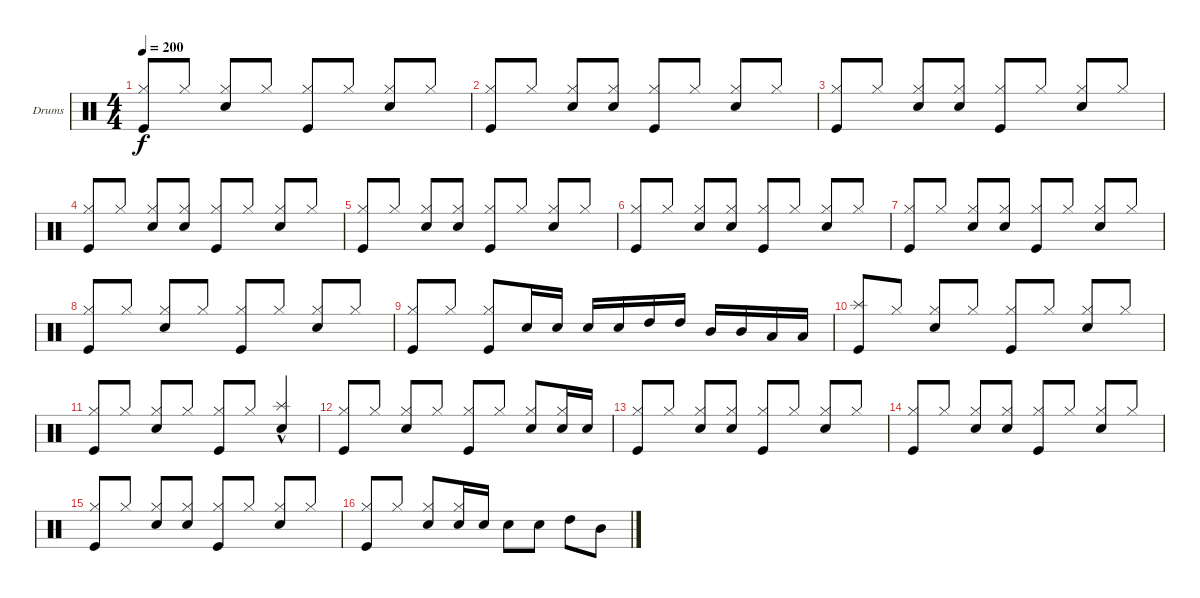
\defaultSystemsLayout 4
\bracketExtendMode groupsimilarinstruments
\firstSystemTrackNameOrientation horizontal
\otherSystemsTrackNameOrientation horizontal
\track ("Drumkit" "Drums") {instrument percussion}
\staff {score}
\articulation defaults
\ts (4 4)
\tempo 200
\clef neutral
\ks c
("Hi-Hat (closed)" "Kick (hit)").8{dy f beam invert} "Hi-Hat (closed)".8 ("Hi-Hat (closed)" "Snare (hit) 2").8{beam invert} "Hi-Hat (closed)".8 ("Hi-Hat (closed)" "Kick (hit)").8{beam invert} "Hi-Hat (closed)".8 ("Hi-Hat (closed)" "Snare (hit) 2").8{beam invert} "Hi-Hat (closed)".8 |
("Hi-Hat (closed)" "Kick (hit)").8{beam invert} "Hi-Hat (closed)".8 ("Hi-Hat (closed)" "Snare (hit) 2").8{beam invert} ("Hi-Hat (closed)" "Snare (hit) 2").8 ("Hi-Hat (closed)" "Kick (hit)").8{beam invert} "Hi-Hat (closed)".8 ("Hi-Hat (closed)" "Snare (hit) 2").8{beam invert} "Hi-Hat (closed)".8 |
("Hi-Hat (closed)" "Kick (hit)").8{beam invert} "Hi-Hat (closed)".8 ("Hi-Hat (closed)" "Snare (hit) 2").8{beam invert} ("Hi-Hat (closed)" "Snare (hit) 2").8 ("Hi-Hat (closed)" "Kick (hit)").8{beam invert} "Hi-Hat (closed)".8 ("Hi-Hat (closed)" "Snare (hit) 2").8{beam invert} "Hi-Hat (closed)".8 |
("Hi-Hat (closed)" "Kick (hit)").8{beam invert} "Hi-Hat (closed)".8 ("Hi-Hat (closed)" "Snare (hit) 2").8{beam invert} ("Hi-Hat (closed)" "Snare (hit) 2").8 ("Hi-Hat (closed)" "Kick (hit)").8{beam invert} "Hi-Hat (closed)".8 ("Hi-Hat (closed)" "Snare (hit) 2").8{beam invert} "Hi-Hat (closed)".8 |
("Hi-Hat (closed)" "Kick (hit)").8{beam invert} "Hi-Hat (closed)".8 ("Hi-Hat (closed)" "Snare (hit) 2").8{beam invert} ("Hi-Hat (closed)" "Snare (hit) 2").8 ("Hi-Hat (closed)" "Kick (hit)").8{beam invert} "Hi-Hat (closed)".8 ("Hi-Hat (closed)" "Snare (hit) 2").8{beam invert} "Hi-Hat (closed)".8 |
("Hi-Hat (closed)" "Kick (hit)").8{beam invert} "Hi-Hat (closed)".8 ("Hi-Hat (closed)" "Snare (hit) 2").8{beam invert} ("Hi-Hat (closed)" "Snare (hit) 2").8 ("Hi-Hat (closed)" "Kick (hit)").8{beam invert} "Hi-Hat (closed)".8 ("Hi-Hat (closed)" "Snare (hit) 2").8{beam invert} "Hi-Hat (closed)".8 |
("Hi-Hat (closed)" "Kick (hit)").8{beam invert} "Hi-Hat (closed)".8 ("Hi-Hat (closed)" "Snare (hit) 2").8{beam invert} ("Hi-Hat (closed)" "Snare (hit) 2").8 ("Hi-Hat (closed)" "Kick (hit)").8{beam invert} "Hi-Hat (closed)".8 ("Hi-Hat (closed)" "Snare (hit) 2").8{beam invert} "Hi-Hat (closed)".8 |
("Hi-Hat (closed)" "Kick (hit)").8{beam invert} "Hi-Hat (closed)".8 ("Hi-Hat (closed)" "Snare (hit) 2").8{beam invert} "Hi-Hat (closed)".8 ("Hi-Hat (closed)" "Kick (hit)").8{beam invert} "Hi-Hat (closed)".8 ("Hi-Hat (closed)" "Snare (hit) 2").8{beam invert} "Hi-Hat (closed)".8 |
("Hi-Hat (closed)" "Kick (hit)").8{beam invert} "Hi-Hat (closed)".8 ("Hi-Hat (closed)" "Kick (hit)").8{beam invert} "Snare (hit) 2".16 "Snare (hit) 2".16{beam invert} "Snare (hit) 2".16{beam invert} "Snare (hit) 2".16 "High Tom (hit)".16 "High Tom (hit)".16 "Mid Tom (hit)".16 "Mid Tom (hit)".16 "Low Tom (hit)".16 "Low Tom (hit)".16 |
("Kick (hit)" "Splash (hit)").8 "Hi-Hat (closed)".8 ("Hi-Hat (closed)" "Snare (hit) 2").8{beam invert} "Hi-Hat (closed)".8 ("Hi-Hat (closed)" "Kick (hit)").8{beam invert} "Hi-Hat (closed)".8 ("Hi-Hat (closed)" "Snare (hit) 2").8{beam invert} "Hi-Hat (closed)".8 |
("Hi-Hat (closed)" "Kick (hit)").8{beam invert} "Hi-Hat (closed)".8 ("Hi-Hat (closed)" "Snare (hit) 2").8{beam invert} "Hi-Hat (closed)".8 ("Hi-Hat (closed)" "Kick (hit)").8{beam invert} "Hi-Hat (closed)".8 ("Snare (hit) 2" "Splash (hit)"{hac}).4{beam invert} |
("Hi-Hat (closed)" "Kick (hit)").8{beam invert} "Hi-Hat (closed)".8 ("Hi-Hat (closed)" "Snare (hit) 2").8{beam invert} "Hi-Hat (closed)".8 ("Hi-Hat (closed)" "Kick (hit)").8{beam invert} "Hi-Hat (closed)".8 ("Hi-Hat (closed)" "Snare (hit) 2").8{beam invert} ("Hi-Hat (closed)" "Snare (hit) 2").16 "Snare (hit) 2".16 |
("Hi-Hat (closed)" "Kick (hit)").8{beam invert} "Hi-Hat (closed)".8 ("Hi-Hat (closed)" "Snare (hit) 2").8{beam invert} ("Hi-Hat (closed)" "Snare (hit) 2").8 ("Hi-Hat (closed)" "Kick (hit)").8{beam invert} "Hi-Hat (closed)".8 ("Hi-Hat (closed)" "Snare (hit) 2").8{beam invert} "Hi-Hat (closed)".8 |
("Hi-Hat (closed)" "Kick (hit)").8{beam invert} "Hi-Hat (closed)".8 ("Hi-Hat (closed)" "Snare (hit) 2").8{beam invert} ("Hi-Hat (closed)" "Snare (hit) 2").8 ("Hi-Hat (closed)" "Kick (hit)").8{beam invert} "Hi-Hat (closed)".8 ("Hi-Hat (closed)" "Snare (hit) 2").8{beam invert} "Hi-Hat (closed)".8 |
("Hi-Hat (closed)" "Kick (hit)").8{beam invert} "Hi-Hat (closed)".8 ("Hi-Hat (closed)" "Snare (hit) 2").8{beam invert} ("Hi-Hat (closed)" "Snare (hit) 2").8 ("Hi-Hat (closed)" "Kick (hit)").8{beam invert} "Hi-Hat (closed)".8 ("Hi-Hat (closed)" "Snare (hit) 2").8{beam invert} "Hi-Hat (closed)".8 |
("Hi-Hat (closed)" "Kick (hit)").8{beam invert} "Hi-Hat (closed)".8 ("Hi-Hat (closed)" "Snare (hit) 2").8{beam invert} ("Hi-Hat (closed)" "Snare (hit) 2").16 "Snare (hit) 2".16 "Snare (hit) 2".8 "Snare (hit) 2".8 "High Tom (hit)".8 "Mid Tom (hit)".8
